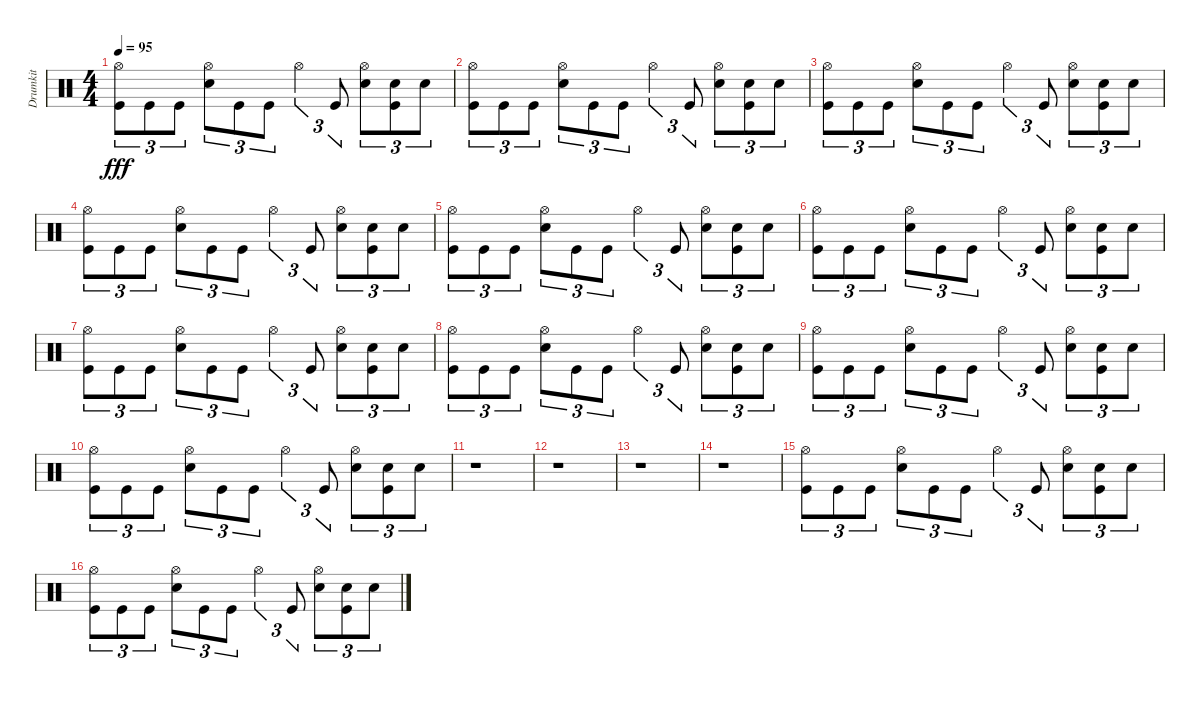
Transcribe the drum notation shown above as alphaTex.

\track ("Drumkit" "Drumkit") {instrument percussion}
\staff {score}
\articulation defaults
\ts (4 4)
\tempo 95
\clef neutral
\ks c
("Hi-Hat (open)" "Kick (hit)").8{tu (3 2) dy fff} "Kick (hit)".8{tu (3 2)} "Kick (hit)".8{tu (3 2)} ("Hi-Hat (open)" "Snare (hit) 2").8{tu (3 2)} "Kick (hit)".8{tu (3 2)} "Kick (hit)".8{tu (3 2)} "Hi-Hat (open)".4{tu (3 2)} "Kick (hit)".8{tu (3 2)} ("Hi-Hat (open)" "Snare (hit) 2").8{tu (3 2)} ("Snare (hit) 2" "Kick (hit)").8{tu (3 2)} "Snare (hit) 2".8{tu (3 2)} |
("Hi-Hat (open)" "Kick (hit)").8{tu (3 2)} "Kick (hit)".8{tu (3 2)} "Kick (hit)".8{tu (3 2)} ("Hi-Hat (open)" "Snare (hit) 2").8{tu (3 2)} "Kick (hit)".8{tu (3 2)} "Kick (hit)".8{tu (3 2)} "Hi-Hat (open)".4{tu (3 2)} "Kick (hit)".8{tu (3 2)} ("Hi-Hat (open)" "Snare (hit) 2").8{tu (3 2)} ("Snare (hit) 2" "Kick (hit)").8{tu (3 2)} "Snare (hit) 2".8{tu (3 2)} |
("Hi-Hat (open)" "Kick (hit)").8{tu (3 2)} "Kick (hit)".8{tu (3 2)} "Kick (hit)".8{tu (3 2)} ("Hi-Hat (open)" "Snare (hit) 2").8{tu (3 2)} "Kick (hit)".8{tu (3 2)} "Kick (hit)".8{tu (3 2)} "Hi-Hat (open)".4{tu (3 2)} "Kick (hit)".8{tu (3 2)} ("Hi-Hat (open)" "Snare (hit) 2").8{tu (3 2)} ("Snare (hit) 2" "Kick (hit)").8{tu (3 2)} "Snare (hit) 2".8{tu (3 2)} |
("Hi-Hat (open)" "Kick (hit)").8{tu (3 2)} "Kick (hit)".8{tu (3 2)} "Kick (hit)".8{tu (3 2)} ("Hi-Hat (open)" "Snare (hit) 2").8{tu (3 2)} "Kick (hit)".8{tu (3 2)} "Kick (hit)".8{tu (3 2)} "Hi-Hat (open)".4{tu (3 2)} "Kick (hit)".8{tu (3 2)} ("Hi-Hat (open)" "Snare (hit) 2").8{tu (3 2)} ("Snare (hit) 2" "Kick (hit)").8{tu (3 2)} "Snare (hit) 2".8{tu (3 2)} |
("Hi-Hat (open)" "Kick (hit)").8{tu (3 2)} "Kick (hit)".8{tu (3 2)} "Kick (hit)".8{tu (3 2)} ("Hi-Hat (open)" "Snare (hit) 2").8{tu (3 2)} "Kick (hit)".8{tu (3 2)} "Kick (hit)".8{tu (3 2)} "Hi-Hat (open)".4{tu (3 2)} "Kick (hit)".8{tu (3 2)} ("Hi-Hat (open)" "Snare (hit) 2").8{tu (3 2)} ("Snare (hit) 2" "Kick (hit)").8{tu (3 2)} "Snare (hit) 2".8{tu (3 2)} |
("Hi-Hat (open)" "Kick (hit)").8{tu (3 2)} "Kick (hit)".8{tu (3 2)} "Kick (hit)".8{tu (3 2)} ("Hi-Hat (open)" "Snare (hit) 2").8{tu (3 2)} "Kick (hit)".8{tu (3 2)} "Kick (hit)".8{tu (3 2)} "Hi-Hat (open)".4{tu (3 2)} "Kick (hit)".8{tu (3 2)} ("Hi-Hat (open)" "Snare (hit) 2").8{tu (3 2)} ("Snare (hit) 2" "Kick (hit)").8{tu (3 2)} "Snare (hit) 2".8{tu (3 2)} |
("Hi-Hat (open)" "Kick (hit)").8{tu (3 2)} "Kick (hit)".8{tu (3 2)} "Kick (hit)".8{tu (3 2)} ("Hi-Hat (open)" "Snare (hit) 2").8{tu (3 2)} "Kick (hit)".8{tu (3 2)} "Kick (hit)".8{tu (3 2)} "Hi-Hat (open)".4{tu (3 2)} "Kick (hit)".8{tu (3 2)} ("Hi-Hat (open)" "Snare (hit) 2").8{tu (3 2)} ("Snare (hit) 2" "Kick (hit)").8{tu (3 2)} "Snare (hit) 2".8{tu (3 2)} |
("Hi-Hat (open)" "Kick (hit)").8{tu (3 2)} "Kick (hit)".8{tu (3 2)} "Kick (hit)".8{tu (3 2)} ("Hi-Hat (open)" "Snare (hit) 2").8{tu (3 2)} "Kick (hit)".8{tu (3 2)} "Kick (hit)".8{tu (3 2)} "Hi-Hat (open)".4{tu (3 2)} "Kick (hit)".8{tu (3 2)} ("Hi-Hat (open)" "Snare (hit) 2").8{tu (3 2)} ("Snare (hit) 2" "Kick (hit)").8{tu (3 2)} "Snare (hit) 2".8{tu (3 2)} |
("Hi-Hat (open)" "Kick (hit)").8{tu (3 2)} "Kick (hit)".8{tu (3 2)} "Kick (hit)".8{tu (3 2)} ("Hi-Hat (open)" "Snare (hit) 2").8{tu (3 2)} "Kick (hit)".8{tu (3 2)} "Kick (hit)".8{tu (3 2)} "Hi-Hat (open)".4{tu (3 2)} "Kick (hit)".8{tu (3 2)} ("Hi-Hat (open)" "Snare (hit) 2").8{tu (3 2)} ("Snare (hit) 2" "Kick (hit)").8{tu (3 2)} "Snare (hit) 2".8{tu (3 2)} |
("Hi-Hat (open)" "Kick (hit)").8{tu (3 2)} "Kick (hit)".8{tu (3 2)} "Kick (hit)".8{tu (3 2)} ("Hi-Hat (open)" "Snare (hit) 2").8{tu (3 2)} "Kick (hit)".8{tu (3 2)} "Kick (hit)".8{tu (3 2)} "Hi-Hat (open)".4{tu (3 2)} "Kick (hit)".8{tu (3 2)} ("Hi-Hat (open)" "Snare (hit) 2").8{tu (3 2)} ("Snare (hit) 2" "Kick (hit)").8{tu (3 2)} "Snare (hit) 2".8{tu (3 2)} |
r.1 |
r.1 |
r.1 |
r.1 |
("Hi-Hat (open)" "Kick (hit)").8{tu (3 2)} "Kick (hit)".8{tu (3 2)} "Kick (hit)".8{tu (3 2)} ("Hi-Hat (open)" "Snare (hit) 2").8{tu (3 2)} "Kick (hit)".8{tu (3 2)} "Kick (hit)".8{tu (3 2)} "Hi-Hat (open)".4{tu (3 2)} "Kick (hit)".8{tu (3 2)} ("Hi-Hat (open)" "Snare (hit) 2").8{tu (3 2)} ("Snare (hit) 2" "Kick (hit)").8{tu (3 2)} "Snare (hit) 2".8{tu (3 2)} |
("Hi-Hat (open)" "Kick (hit)").8{tu (3 2)} "Kick (hit)".8{tu (3 2)} "Kick (hit)".8{tu (3 2)} ("Hi-Hat (open)" "Snare (hit) 2").8{tu (3 2)} "Kick (hit)".8{tu (3 2)} "Kick (hit)".8{tu (3 2)} "Hi-Hat (open)".4{tu (3 2)} "Kick (hit)".8{tu (3 2)} ("Hi-Hat (open)" "Snare (hit) 2").8{tu (3 2)} ("Snare (hit) 2" "Kick (hit)").8{tu (3 2)} "Snare (hit) 2".8{tu (3 2)}
